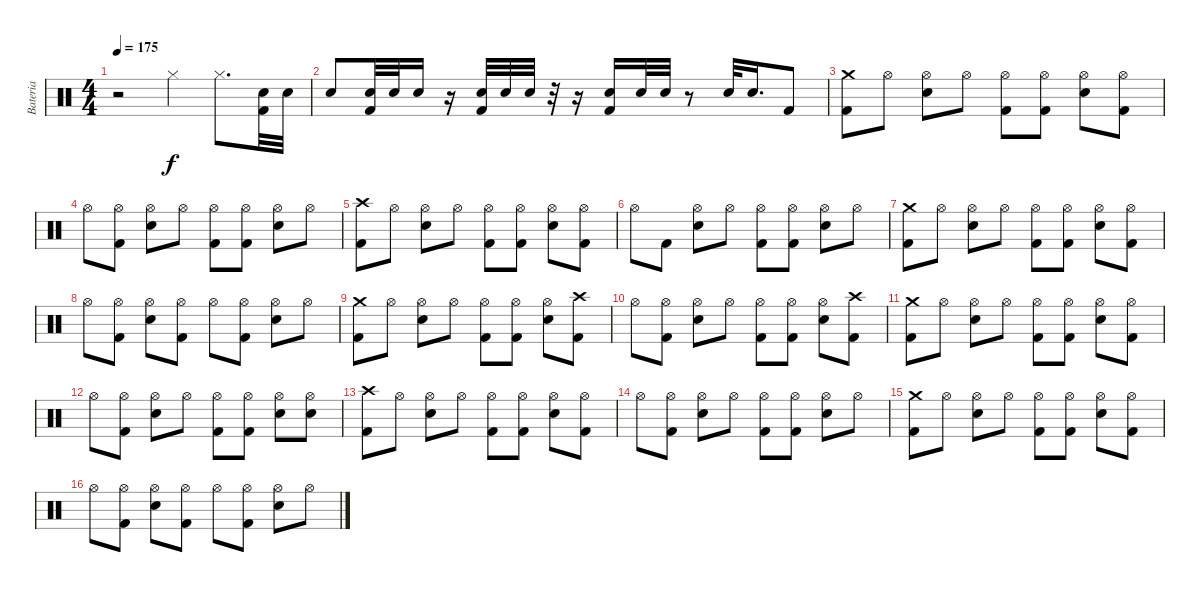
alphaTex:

\track ("Bateria" "Bateria") {instrument percussion}
\staff {score}
\articulation defaults
\ts (4 4)
\tempo 175
\clef neutral
\ks c
r.2{dy f} "Hi-Hat (closed)".4 "Hi-Hat (closed)".8{d} ("Kick (hit) 2" "Snare (hit) 2").32 "Snare (hit) 2".32 |
"Snare (hit) 2".8 ("Kick (hit) 2" "Snare (hit) 2").32 "Snare (hit) 2".32 "Snare (hit) 2".16 r.16 ("Kick (hit) 2" "Snare (hit) 2").32 "Snare (hit) 2".32 "Snare (hit) 2".32 r.32 r.16 ("Kick (hit) 2" "Snare (hit) 2").16 "Snare (hit) 2".32 "Snare (hit) 2".32 r.8 "Snare (hit) 2".32 "Snare (hit) 2".16{d} "Kick (hit) 2".8 |
("Kick (hit) 2" "Crash medium (hit)").8 "Hi-Hat (open)".8 ("Snare (hit) 2" "Hi-Hat (open)").8 "Hi-Hat (open)".8 ("Kick (hit) 2" "Hi-Hat (open)").8 ("Kick (hit) 2" "Hi-Hat (open)").8 ("Snare (hit) 2" "Hi-Hat (open)").8 ("Kick (hit) 2" "Hi-Hat (open)").8 |
"Hi-Hat (open)".8 ("Kick (hit) 2" "Hi-Hat (open)").8 ("Snare (hit) 2" "Hi-Hat (open)").8 "Hi-Hat (open)".8 ("Kick (hit) 2" "Hi-Hat (open)").8 ("Kick (hit) 2" "Hi-Hat (open)").8 ("Snare (hit) 2" "Hi-Hat (open)").8 "Hi-Hat (open)".8 |
("Kick (hit) 2" "Crash high (hit)").8 "Hi-Hat (open)".8 ("Snare (hit) 2" "Hi-Hat (open)").8 "Hi-Hat (open)".8 ("Kick (hit) 2" "Hi-Hat (open)").8 ("Kick (hit) 2" "Hi-Hat (open)").8 ("Snare (hit) 2" "Hi-Hat (open)").8 ("Kick (hit) 2" "Hi-Hat (open)").8 |
"Hi-Hat (open)".8 "Kick (hit) 2".8 ("Snare (hit) 2" "Hi-Hat (open)").8 "Hi-Hat (open)".8 ("Kick (hit) 2" "Hi-Hat (open)").8 ("Kick (hit) 2" "Hi-Hat (open)").8 ("Snare (hit) 2" "Hi-Hat (open)").8 "Hi-Hat (open)".8 |
("Kick (hit) 2" "Crash medium (hit)").8 "Hi-Hat (open)".8 ("Snare (hit) 2" "Hi-Hat (open)").8 "Hi-Hat (open)".8 ("Kick (hit) 2" "Hi-Hat (open)").8 ("Kick (hit) 2" "Hi-Hat (open)").8 ("Snare (hit) 2" "Hi-Hat (open)").8 ("Kick (hit) 2" "Hi-Hat (open)").8 |
"Hi-Hat (open)".8 ("Kick (hit) 2" "Hi-Hat (open)").8 ("Snare (hit) 2" "Hi-Hat (open)").8 ("Kick (hit) 2" "Hi-Hat (open)").8 "Hi-Hat (open)".8 ("Kick (hit) 2" "Hi-Hat (open)").8 ("Snare (hit) 2" "Hi-Hat (open)").8 "Hi-Hat (open)".8 |
("Kick (hit) 2" "Crash medium (hit)").8 "Hi-Hat (open)".8 ("Snare (hit) 2" "Hi-Hat (open)").8 "Hi-Hat (open)".8 ("Kick (hit) 2" "Hi-Hat (open)").8 ("Kick (hit) 2" "Hi-Hat (open)").8 ("Snare (hit) 2" "Hi-Hat (open)").8 ("Kick (hit) 2" "Crash high (hit)").8 |
"Hi-Hat (open)".8 ("Kick (hit) 2" "Hi-Hat (open)").8 ("Snare (hit) 2" "Hi-Hat (open)").8 "Hi-Hat (open)".8 ("Kick (hit) 2" "Hi-Hat (open)").8 ("Kick (hit) 2" "Hi-Hat (open)").8 ("Snare (hit) 2" "Hi-Hat (open)").8 ("Kick (hit) 2" "Crash high (hit)").8 |
("Kick (hit) 2" "Crash medium (hit)").8 "Hi-Hat (open)".8 ("Snare (hit) 2" "Hi-Hat (open)").8 "Hi-Hat (open)".8 ("Kick (hit) 2" "Hi-Hat (open)").8 ("Kick (hit) 2" "Hi-Hat (open)").8 ("Snare (hit) 2" "Hi-Hat (open)").8 ("Kick (hit) 2" "Hi-Hat (open)").8 |
"Hi-Hat (open)".8 ("Kick (hit) 2" "Hi-Hat (open)").8 ("Snare (hit) 2" "Hi-Hat (open)").8 "Hi-Hat (open)".8 ("Kick (hit) 2" "Hi-Hat (open)").8 ("Kick (hit) 2" "Hi-Hat (open)").8 ("Snare (hit) 2" "Hi-Hat (open)").8 ("Snare (hit) 2" "Hi-Hat (open)").8 |
("Kick (hit) 2" "Crash high (hit)").8 "Hi-Hat (open)".8 ("Snare (hit) 2" "Hi-Hat (open)").8 "Hi-Hat (open)".8 ("Kick (hit) 2" "Hi-Hat (open)").8 ("Kick (hit) 2" "Hi-Hat (open)").8 ("Snare (hit) 2" "Hi-Hat (open)").8 ("Kick (hit) 2" "Hi-Hat (open)").8 |
"Hi-Hat (open)".8 ("Kick (hit) 2" "Hi-Hat (open)").8 ("Snare (hit) 2" "Hi-Hat (open)").8 "Hi-Hat (open)".8 ("Kick (hit) 2" "Hi-Hat (open)").8 ("Kick (hit) 2" "Hi-Hat (open)").8 ("Snare (hit) 2" "Hi-Hat (open)").8 "Hi-Hat (open)".8 |
("Kick (hit) 2" "Crash medium (hit)").8 "Hi-Hat (open)".8 ("Snare (hit) 2" "Hi-Hat (open)").8 "Hi-Hat (open)".8 ("Kick (hit) 2" "Hi-Hat (open)").8 ("Kick (hit) 2" "Hi-Hat (open)").8 ("Snare (hit) 2" "Hi-Hat (open)").8 ("Kick (hit) 2" "Hi-Hat (open)").8 |
"Hi-Hat (open)".8 ("Kick (hit) 2" "Hi-Hat (open)").8 ("Snare (hit) 2" "Hi-Hat (open)").8 ("Kick (hit) 2" "Hi-Hat (open)").8 "Hi-Hat (open)".8 ("Kick (hit) 2" "Hi-Hat (open)").8 ("Snare (hit) 2" "Hi-Hat (open)").8 "Hi-Hat (open)".8
